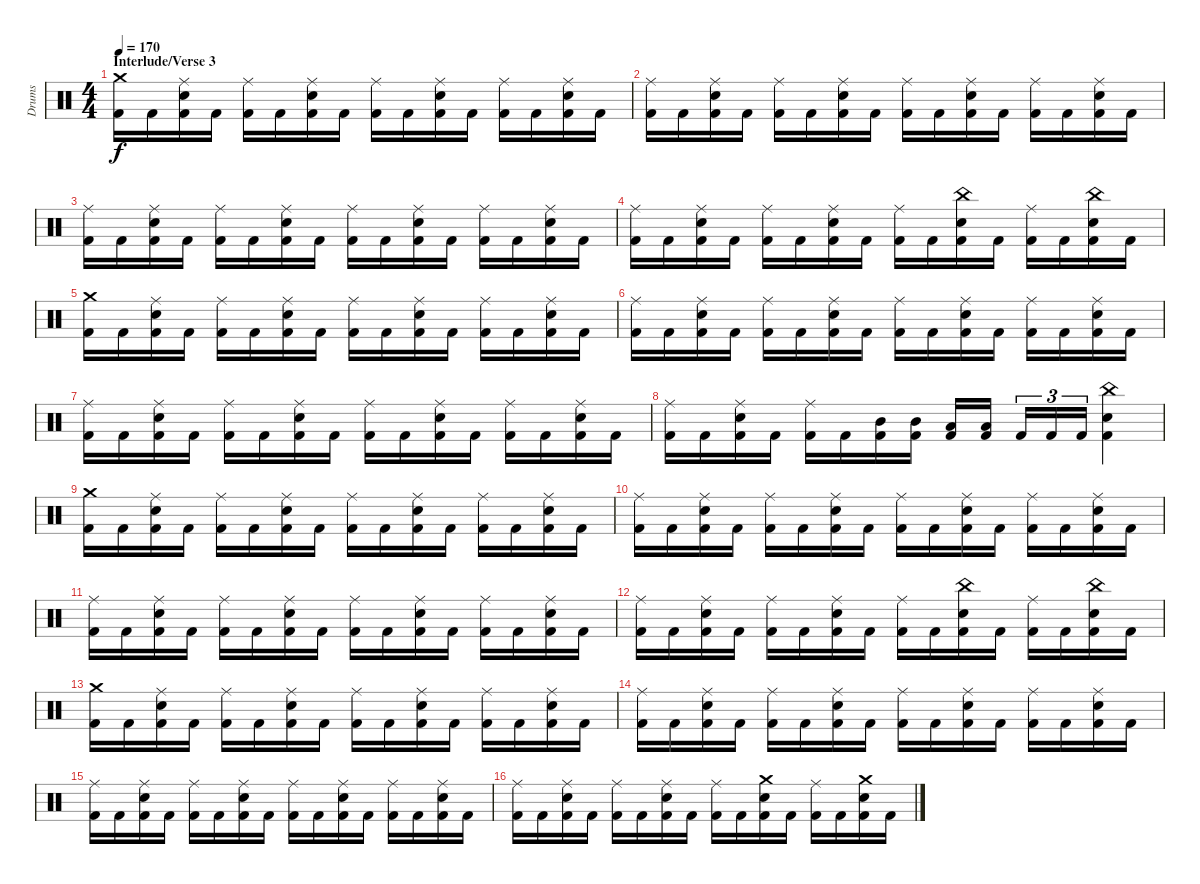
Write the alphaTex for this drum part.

\track ("Drums" "Drums") {instrument percussion}
\staff {score}
\articulation defaults
\ts (4 4)
\section ("" "Interlude/Verse 3")
\tempo 170
\clef neutral
\ks c
("Crash medium (hit)" "Kick (hit) 2").16{dy f} "Kick (hit) 2".16 ("Ride (middle)" "Electric Snare (hit)" "Kick (hit) 2").16 "Kick (hit) 2".16 ("Ride (middle)" "Kick (hit) 2").16 "Kick (hit) 2".16 ("Ride (middle)" "Electric Snare (hit)" "Kick (hit) 2").16 "Kick (hit) 2".16 ("Ride (middle)" "Kick (hit) 2").16 "Kick (hit) 2".16 ("Ride (middle)" "Electric Snare (hit)" "Kick (hit) 2").16 "Kick (hit) 2".16 ("Ride (middle)" "Kick (hit) 2").16 "Kick (hit) 2".16 ("Ride (middle)" "Electric Snare (hit)" "Kick (hit) 2").16 "Kick (hit) 2".16 |
("Ride (middle)" "Kick (hit) 2").16 "Kick (hit) 2".16 ("Ride (middle)" "Electric Snare (hit)" "Kick (hit) 2").16 "Kick (hit) 2".16 ("Ride (middle)" "Kick (hit) 2").16 "Kick (hit) 2".16 ("Ride (middle)" "Electric Snare (hit)" "Kick (hit) 2").16 "Kick (hit) 2".16 ("Ride (middle)" "Kick (hit) 2").16 "Kick (hit) 2".16 ("Ride (middle)" "Electric Snare (hit)" "Kick (hit) 2").16 "Kick (hit) 2".16 ("Ride (middle)" "Kick (hit) 2").16 "Kick (hit) 2".16 ("Ride (middle)" "Electric Snare (hit)" "Kick (hit) 2").16 "Kick (hit) 2".16 |
("Ride (middle)" "Kick (hit) 2").16 "Kick (hit) 2".16 ("Ride (middle)" "Electric Snare (hit)" "Kick (hit) 2").16 "Kick (hit) 2".16 ("Ride (middle)" "Kick (hit) 2").16 "Kick (hit) 2".16 ("Ride (middle)" "Electric Snare (hit)" "Kick (hit) 2").16 "Kick (hit) 2".16 ("Ride (middle)" "Kick (hit) 2").16 "Kick (hit) 2".16 ("Ride (middle)" "Electric Snare (hit)" "Kick (hit) 2").16 "Kick (hit) 2".16 ("Ride (middle)" "Kick (hit) 2").16 "Kick (hit) 2".16 ("Ride (middle)" "Electric Snare (hit)" "Kick (hit) 2").16 "Kick (hit) 2".16 |
("Ride (middle)" "Kick (hit) 2").16 "Kick (hit) 2".16 ("Ride (middle)" "Electric Snare (hit)" "Kick (hit) 2").16 "Kick (hit) 2".16 ("Ride (middle)" "Kick (hit) 2").16 "Kick (hit) 2".16 ("Ride (middle)" "Electric Snare (hit)" "Kick (hit) 2").16 "Kick (hit) 2".16 ("Ride (middle)" "Kick (hit) 2").16 "Kick (hit) 2".16 ("China (hit)" "Electric Snare (hit)" "Kick (hit) 2").16 "Kick (hit) 2".16 ("Ride (middle)" "Kick (hit) 2").16 "Kick (hit) 2".16 ("China (hit)" "Electric Snare (hit)" "Kick (hit) 2").16 "Kick (hit) 2".16 |
("Crash medium (hit)" "Kick (hit) 2").16 "Kick (hit) 2".16 ("Ride (middle)" "Electric Snare (hit)" "Kick (hit) 2").16 "Kick (hit) 2".16 ("Ride (middle)" "Kick (hit) 2").16 "Kick (hit) 2".16 ("Ride (middle)" "Electric Snare (hit)" "Kick (hit) 2").16 "Kick (hit) 2".16 ("Ride (middle)" "Kick (hit) 2").16 "Kick (hit) 2".16 ("Ride (middle)" "Electric Snare (hit)" "Kick (hit) 2").16 "Kick (hit) 2".16 ("Ride (middle)" "Kick (hit) 2").16 "Kick (hit) 2".16 ("Ride (middle)" "Electric Snare (hit)" "Kick (hit) 2").16 "Kick (hit) 2".16 |
("Ride (middle)" "Kick (hit) 2").16 "Kick (hit) 2".16 ("Ride (middle)" "Electric Snare (hit)" "Kick (hit) 2").16 "Kick (hit) 2".16 ("Ride (middle)" "Kick (hit) 2").16 "Kick (hit) 2".16 ("Ride (middle)" "Electric Snare (hit)" "Kick (hit) 2").16 "Kick (hit) 2".16 ("Ride (middle)" "Kick (hit) 2").16 "Kick (hit) 2".16 ("Ride (middle)" "Electric Snare (hit)" "Kick (hit) 2").16 "Kick (hit) 2".16 ("Ride (middle)" "Kick (hit) 2").16 "Kick (hit) 2".16 ("Ride (middle)" "Electric Snare (hit)" "Kick (hit) 2").16 "Kick (hit) 2".16 |
("Ride (middle)" "Kick (hit) 2").16 "Kick (hit) 2".16 ("Ride (middle)" "Electric Snare (hit)" "Kick (hit) 2").16 "Kick (hit) 2".16 ("Ride (middle)" "Kick (hit) 2").16 "Kick (hit) 2".16 ("Ride (middle)" "Electric Snare (hit)" "Kick (hit) 2").16 "Kick (hit) 2".16 ("Ride (middle)" "Kick (hit) 2").16 "Kick (hit) 2".16 ("Ride (middle)" "Electric Snare (hit)" "Kick (hit) 2").16 "Kick (hit) 2".16 ("Ride (middle)" "Kick (hit) 2").16 "Kick (hit) 2".16 ("Ride (middle)" "Electric Snare (hit)" "Kick (hit) 2").16 "Kick (hit) 2".16 |
("Ride (middle)" "Kick (hit) 2").16 "Kick (hit) 2".16 ("Ride (middle)" "Electric Snare (hit)" "Kick (hit) 2").16 "Kick (hit) 2".16 ("Ride (middle)" "Kick (hit) 2").16 "Kick (hit) 2".16 ("Mid Tom (hit)" "Kick (hit) 2").16 ("Mid Tom (hit)" "Kick (hit) 2").16 ("Low Tom (hit)" "Kick (hit) 2").16 ("Low Tom (hit)" "Kick (hit) 2").16 "Kick (hit) 2".16{tu (3 2)} "Kick (hit) 2".16{tu (3 2)} "Kick (hit) 2".16{tu (3 2)} ("China (hit)" "Electric Snare (hit)" "Kick (hit) 2").4 |
("Crash medium (hit)" "Kick (hit) 2").16 "Kick (hit) 2".16 ("Ride (middle)" "Electric Snare (hit)" "Kick (hit) 2").16 "Kick (hit) 2".16 ("Ride (middle)" "Kick (hit) 2").16 "Kick (hit) 2".16 ("Ride (middle)" "Electric Snare (hit)" "Kick (hit) 2").16 "Kick (hit) 2".16 ("Ride (middle)" "Kick (hit) 2").16 "Kick (hit) 2".16 ("Ride (middle)" "Electric Snare (hit)" "Kick (hit) 2").16 "Kick (hit) 2".16 ("Ride (middle)" "Kick (hit) 2").16 "Kick (hit) 2".16 ("Ride (middle)" "Electric Snare (hit)" "Kick (hit) 2").16 "Kick (hit) 2".16 |
("Ride (middle)" "Kick (hit) 2").16 "Kick (hit) 2".16 ("Ride (middle)" "Electric Snare (hit)" "Kick (hit) 2").16 "Kick (hit) 2".16 ("Ride (middle)" "Kick (hit) 2").16 "Kick (hit) 2".16 ("Ride (middle)" "Electric Snare (hit)" "Kick (hit) 2").16 "Kick (hit) 2".16 ("Ride (middle)" "Kick (hit) 2").16 "Kick (hit) 2".16 ("Ride (middle)" "Electric Snare (hit)" "Kick (hit) 2").16 "Kick (hit) 2".16 ("Ride (middle)" "Kick (hit) 2").16 "Kick (hit) 2".16 ("Ride (middle)" "Electric Snare (hit)" "Kick (hit) 2").16 "Kick (hit) 2".16 |
("Ride (middle)" "Kick (hit) 2").16 "Kick (hit) 2".16 ("Ride (middle)" "Electric Snare (hit)" "Kick (hit) 2").16 "Kick (hit) 2".16 ("Ride (middle)" "Kick (hit) 2").16 "Kick (hit) 2".16 ("Ride (middle)" "Electric Snare (hit)" "Kick (hit) 2").16 "Kick (hit) 2".16 ("Ride (middle)" "Kick (hit) 2").16 "Kick (hit) 2".16 ("Ride (middle)" "Electric Snare (hit)" "Kick (hit) 2").16 "Kick (hit) 2".16 ("Ride (middle)" "Kick (hit) 2").16 "Kick (hit) 2".16 ("Ride (middle)" "Electric Snare (hit)" "Kick (hit) 2").16 "Kick (hit) 2".16 |
("Ride (middle)" "Kick (hit) 2").16 "Kick (hit) 2".16 ("Ride (middle)" "Electric Snare (hit)" "Kick (hit) 2").16 "Kick (hit) 2".16 ("Ride (middle)" "Kick (hit) 2").16 "Kick (hit) 2".16 ("Ride (middle)" "Electric Snare (hit)" "Kick (hit) 2").16 "Kick (hit) 2".16 ("Ride (middle)" "Kick (hit) 2").16 "Kick (hit) 2".16 ("China (hit)" "Electric Snare (hit)" "Kick (hit) 2").16 "Kick (hit) 2".16 ("Ride (middle)" "Kick (hit) 2").16 "Kick (hit) 2".16 ("China (hit)" "Electric Snare (hit)" "Kick (hit) 2").16 "Kick (hit) 2".16 |
("Crash medium (hit)" "Kick (hit) 2").16 "Kick (hit) 2".16 ("Ride (middle)" "Electric Snare (hit)" "Kick (hit) 2").16 "Kick (hit) 2".16 ("Ride (middle)" "Kick (hit) 2").16 "Kick (hit) 2".16 ("Ride (middle)" "Electric Snare (hit)" "Kick (hit) 2").16 "Kick (hit) 2".16 ("Ride (middle)" "Kick (hit) 2").16 "Kick (hit) 2".16 ("Ride (middle)" "Electric Snare (hit)" "Kick (hit) 2").16 "Kick (hit) 2".16 ("Ride (middle)" "Kick (hit) 2").16 "Kick (hit) 2".16 ("Ride (middle)" "Electric Snare (hit)" "Kick (hit) 2").16 "Kick (hit) 2".16 |
("Ride (middle)" "Kick (hit) 2").16 "Kick (hit) 2".16 ("Ride (middle)" "Electric Snare (hit)" "Kick (hit) 2").16 "Kick (hit) 2".16 ("Ride (middle)" "Kick (hit) 2").16 "Kick (hit) 2".16 ("Ride (middle)" "Electric Snare (hit)" "Kick (hit) 2").16 "Kick (hit) 2".16 ("Ride (middle)" "Kick (hit) 2").16 "Kick (hit) 2".16 ("Ride (middle)" "Electric Snare (hit)" "Kick (hit) 2").16 "Kick (hit) 2".16 ("Ride (middle)" "Kick (hit) 2").16 "Kick (hit) 2".16 ("Ride (middle)" "Electric Snare (hit)" "Kick (hit) 2").16 "Kick (hit) 2".16 |
("Ride (middle)" "Kick (hit) 2").16 "Kick (hit) 2".16 ("Ride (middle)" "Electric Snare (hit)" "Kick (hit) 2").16 "Kick (hit) 2".16 ("Ride (middle)" "Kick (hit) 2").16 "Kick (hit) 2".16 ("Ride (middle)" "Electric Snare (hit)" "Kick (hit) 2").16 "Kick (hit) 2".16 ("Ride (middle)" "Kick (hit) 2").16 "Kick (hit) 2".16 ("Ride (middle)" "Electric Snare (hit)" "Kick (hit) 2").16 "Kick (hit) 2".16 ("Ride (middle)" "Kick (hit) 2").16 "Kick (hit) 2".16 ("Ride (middle)" "Electric Snare (hit)" "Kick (hit) 2").16 "Kick (hit) 2".16 |
("Ride (middle)" "Kick (hit) 2").16 "Kick (hit) 2".16 ("Ride (middle)" "Electric Snare (hit)" "Kick (hit) 2").16 "Kick (hit) 2".16 ("Ride (middle)" "Kick (hit) 2").16 "Kick (hit) 2".16 ("Ride (middle)" "Electric Snare (hit)" "Kick (hit) 2").16 "Kick (hit) 2".16 ("Ride (middle)" "Kick (hit) 2").16 "Kick (hit) 2".16 ("Crash medium (hit)" "Electric Snare (hit)" "Kick (hit) 2").16 "Kick (hit) 2".16 ("Ride (middle)" "Kick (hit) 2").16 "Kick (hit) 2".16 ("Crash medium (hit)" "Electric Snare (hit)" "Kick (hit) 2").16 "Kick (hit) 2".16
